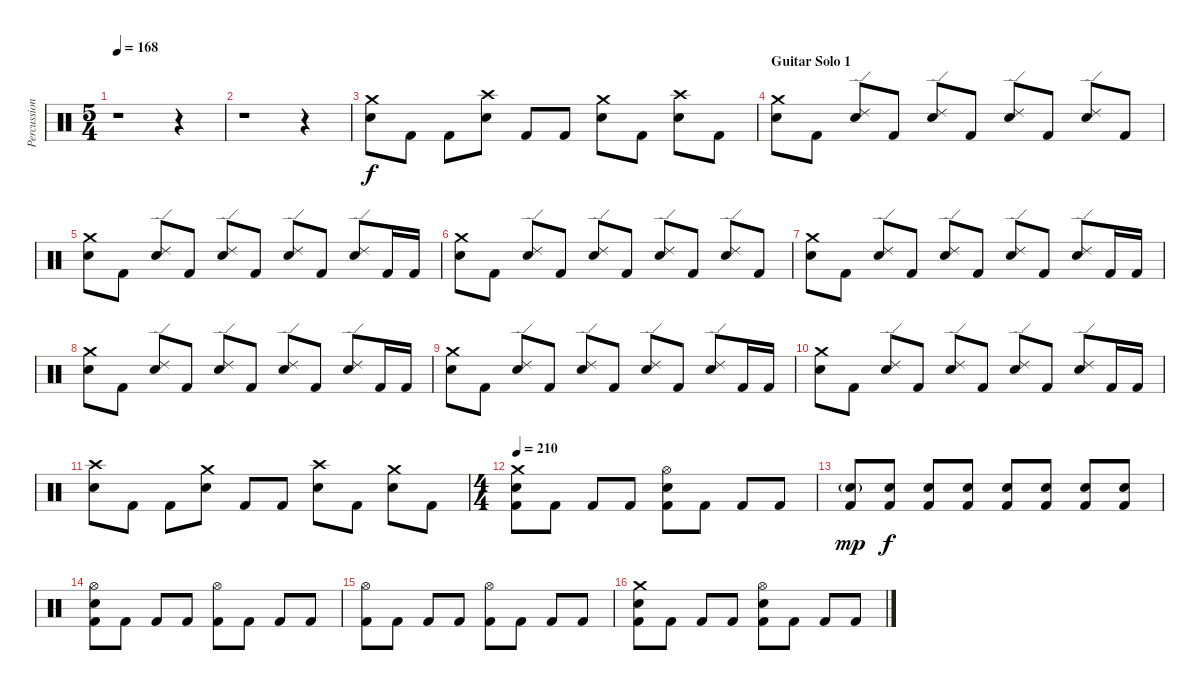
\track ("Percussion" "Percussion") {instrument percussion}
\staff {score}
\articulation defaults
\ts (5 4)
\tempo 168
\clef neutral
\ks c
r.1{dy f} r.4 |
r.1 r.4 |
("Crash medium (hit)" "Electric Snare (hit)").8 "Kick (hit) 2".8 "Kick (hit) 2".8 ("Crash high (hit)" "Electric Snare (hit)").8 "Kick (hit) 2".8 "Kick (hit) 2".8 ("Crash medium (hit)" "Electric Snare (hit)").8 "Kick (hit) 2".8 ("Crash high (hit)" "Electric Snare (hit)").8 "Kick (hit) 2".8 |
\section ("" "Guitar Solo 1")
("Crash medium (hit)" "Electric Snare (hit)").8 "Kick (hit) 2".8 ("Ride (edge) 2" "Electric Snare (hit)").8 "Kick (hit) 2".8 ("Ride (edge) 2" "Electric Snare (hit)").8 "Kick (hit) 2".8 ("Ride (edge) 2" "Electric Snare (hit)").8 "Kick (hit) 2".8 ("Ride (edge) 2" "Electric Snare (hit)").8 "Kick (hit) 2".8 |
("Crash medium (hit)" "Electric Snare (hit)").8 "Kick (hit) 2".8 ("Ride (edge) 2" "Electric Snare (hit)").8 "Kick (hit) 2".8 ("Ride (edge) 2" "Electric Snare (hit)").8 "Kick (hit) 2".8 ("Ride (edge) 2" "Electric Snare (hit)").8 "Kick (hit) 2".8 ("Ride (edge) 2" "Electric Snare (hit)").8 "Kick (hit) 2".16 "Kick (hit) 2".16 |
("Crash medium (hit)" "Electric Snare (hit)").8 "Kick (hit) 2".8 ("Ride (edge) 2" "Electric Snare (hit)").8 "Kick (hit) 2".8 ("Ride (edge) 2" "Electric Snare (hit)").8 "Kick (hit) 2".8 ("Ride (edge) 2" "Electric Snare (hit)").8 "Kick (hit) 2".8 ("Ride (edge) 2" "Electric Snare (hit)").8 "Kick (hit) 2".8 |
("Crash medium (hit)" "Electric Snare (hit)").8 "Kick (hit) 2".8 ("Ride (edge) 2" "Electric Snare (hit)").8 "Kick (hit) 2".8 ("Ride (edge) 2" "Electric Snare (hit)").8 "Kick (hit) 2".8 ("Ride (edge) 2" "Electric Snare (hit)").8 "Kick (hit) 2".8 ("Ride (edge) 2" "Electric Snare (hit)").8 "Kick (hit) 2".16 "Kick (hit) 2".16 |
("Crash medium (hit)" "Electric Snare (hit)").8 "Kick (hit) 2".8 ("Ride (edge) 2" "Electric Snare (hit)").8 "Kick (hit) 2".8 ("Ride (edge) 2" "Electric Snare (hit)").8 "Kick (hit) 2".8 ("Ride (edge) 2" "Electric Snare (hit)").8 "Kick (hit) 2".8 ("Ride (edge) 2" "Electric Snare (hit)").8 "Kick (hit) 2".16 "Kick (hit) 2".16 |
("Crash medium (hit)" "Electric Snare (hit)").8 "Kick (hit) 2".8 ("Ride (edge) 2" "Electric Snare (hit)").8 "Kick (hit) 2".8 ("Ride (edge) 2" "Electric Snare (hit)").8 "Kick (hit) 2".8 ("Ride (edge) 2" "Electric Snare (hit)").8 "Kick (hit) 2".8 ("Ride (edge) 2" "Electric Snare (hit)").8 "Kick (hit) 2".16 "Kick (hit) 2".16 |
("Crash medium (hit)" "Electric Snare (hit)").8 "Kick (hit) 2".8 ("Ride (edge) 2" "Electric Snare (hit)").8 "Kick (hit) 2".8 ("Ride (edge) 2" "Electric Snare (hit)").8 "Kick (hit) 2".8 ("Ride (edge) 2" "Electric Snare (hit)").8 "Kick (hit) 2".8 ("Ride (edge) 2" "Electric Snare (hit)").8 "Kick (hit) 2".16 "Kick (hit) 2".16 |
("Crash high (hit)" "Electric Snare (hit)").8 "Kick (hit) 2".8 "Kick (hit) 2".8 ("Crash medium (hit)" "Electric Snare (hit)").8 "Kick (hit) 2".8 "Kick (hit) 2".8 ("Crash high (hit)" "Electric Snare (hit)").8 "Kick (hit) 2".8 ("Crash medium (hit)" "Electric Snare (hit)").8 "Kick (hit) 2".8 |
\ts (4 4)
\tempo 210
("Crash medium (hit)" "Electric Snare (hit)" "Kick (hit) 2").8 "Kick (hit) 2".8 "Kick (hit) 2".8 "Kick (hit) 2".8 ("Hi-Hat (open)" "Electric Snare (hit)" "Kick (hit) 2").8 "Kick (hit) 2".8 "Kick (hit) 2".8 "Kick (hit) 2".8 |
("Electric Snare (hit)"{g} "Kick (hit) 2").8{dy mp} ("Electric Snare (hit)" "Kick (hit) 2").8{dy f} ("Electric Snare (hit)" "Kick (hit) 2").8 ("Electric Snare (hit)" "Kick (hit) 2").8 ("Electric Snare (hit)" "Kick (hit) 2").8 ("Electric Snare (hit)" "Kick (hit) 2").8 ("Electric Snare (hit)" "Kick (hit) 2").8 ("Electric Snare (hit)" "Kick (hit) 2").8 |
("Hi-Hat (open)" "Electric Snare (hit)" "Kick (hit) 2").8 "Kick (hit) 2".8 "Kick (hit) 2".8 "Kick (hit) 2".8 ("Hi-Hat (open)" "Kick (hit) 2").8 "Kick (hit) 2".8 "Kick (hit) 2".8 "Kick (hit) 2".8 |
("Hi-Hat (open)" "Kick (hit) 2").8 "Kick (hit) 2".8 "Kick (hit) 2".8 "Kick (hit) 2".8 ("Hi-Hat (open)" "Kick (hit) 2").8 "Kick (hit) 2".8 "Kick (hit) 2".8 "Kick (hit) 2".8 |
("Crash medium (hit)" "Electric Snare (hit)" "Kick (hit) 2").8 "Kick (hit) 2".8 "Kick (hit) 2".8 "Kick (hit) 2".8 ("Hi-Hat (open)" "Electric Snare (hit)" "Kick (hit) 2").8 "Kick (hit) 2".8 "Kick (hit) 2".8 "Kick (hit) 2".8
